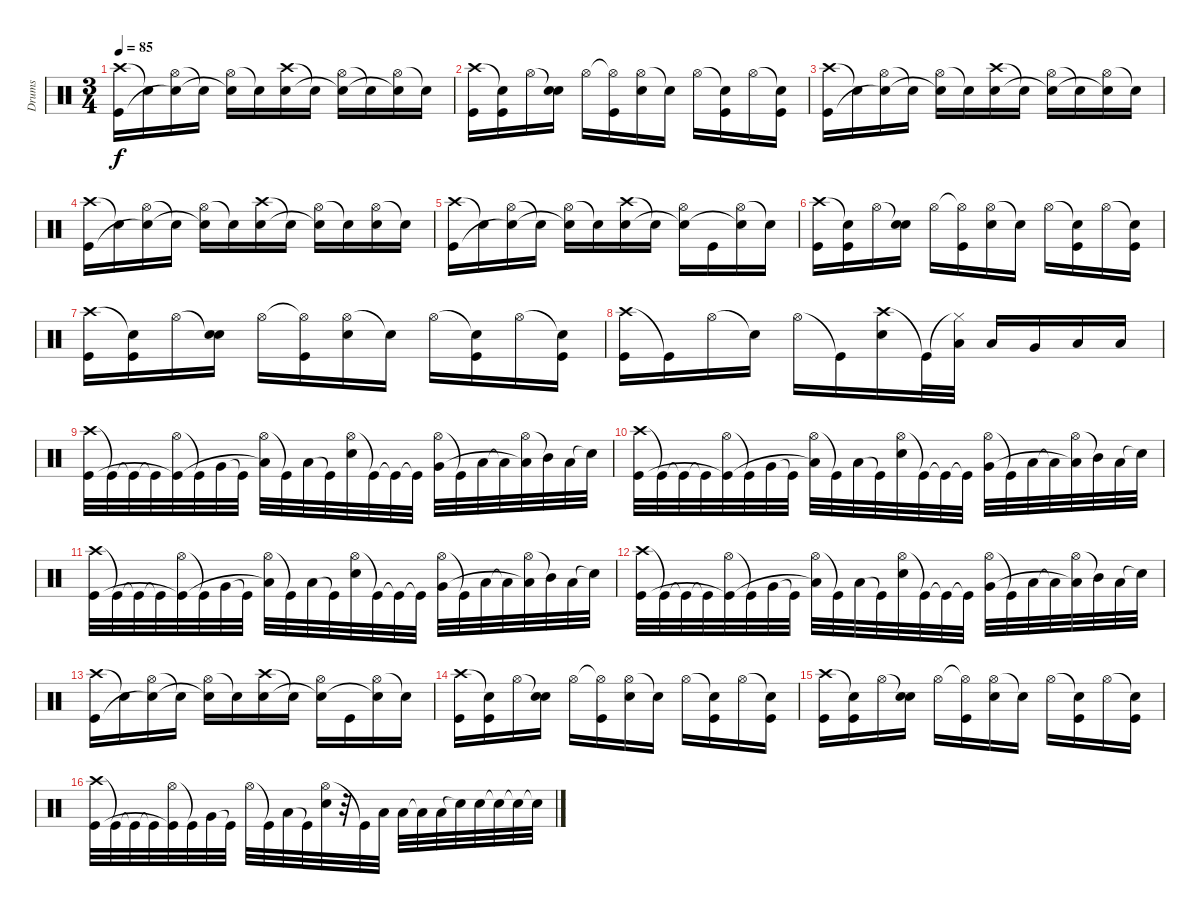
\track ("Drums" "Drums") {instrument percussion}
\staff {score}
\articulation defaults
\ts (3 4)
\tempo 85
\clef neutral
\ks c
("Crash high (hit)" "Kick (hit)").16{dy f} "Snare (hit)"{t}.16 ("Hi-Hat (open)" "Snare (hit)"{t}).16 "Snare (hit)"{t}.16 ("Hi-Hat (open)" "Snare (hit)"{t}).16 "Snare (hit)"{t}.16 ("Crash high (hit)" "Electric Snare (hit)").16 "Snare (hit)"{t}.16 ("Hi-Hat (open)" "Snare (hit)"{t}).16 "Snare (hit)"{t}.16 ("Hi-Hat (open)" "Snare (hit)"{t}).16 "Snare (hit)"{t}.16 |
("Crash high (hit)" "Kick (hit)").16 ("Snare (hit)"{t} "Kick (hit)").16 "Hi-Hat (open)".16 ("Snare (hit)"{t} "Electric Snare (hit)").16 "Hi-Hat (open)".16 ("Hi-Hat (open)"{t} "Kick (hit)").16 ("Hi-Hat (open)" "Electric Snare (hit)").16 "Snare (hit)"{t}.16 "Hi-Hat (open)".16 ("Snare (hit)"{t} "Kick (hit)").16 "Hi-Hat (open)".16 ("Snare (hit)"{t} "Kick (hit)").16 |
("Crash high (hit)" "Kick (hit)").16 "Snare (hit)"{t}.16 ("Hi-Hat (open)" "Snare (hit)"{t}).16 "Snare (hit)"{t}.16 ("Hi-Hat (open)" "Snare (hit)"{t}).16 "Snare (hit)"{t}.16 ("Crash high (hit)" "Electric Snare (hit)").16 "Snare (hit)"{t}.16 ("Hi-Hat (open)" "Snare (hit)"{t}).16 "Snare (hit)"{t}.16 ("Hi-Hat (open)" "Snare (hit)"{t}).16 "Snare (hit)"{t}.16 |
("Crash high (hit)" "Kick (hit)").16 "Snare (hit)"{t}.16 ("Hi-Hat (open)" "Snare (hit)"{t}).16 "Snare (hit)"{t}.16 ("Hi-Hat (open)" "Snare (hit)"{t}).16 "Snare (hit)"{t}.16 ("Crash high (hit)" "Electric Snare (hit)").16 "Snare (hit)"{t}.16 ("Hi-Hat (open)" "Snare (hit)"{t}).16 "Snare (hit)"{t}.16 ("Hi-Hat (open)" "Electric Snare (hit)").16 "Snare (hit)"{t}.16 |
("Crash high (hit)" "Kick (hit)").16 "Snare (hit)"{t}.16 ("Hi-Hat (open)" "Snare (hit)"{t}).16 "Snare (hit)"{t}.16 ("Hi-Hat (open)" "Snare (hit)"{t}).16 "Snare (hit)"{t}.16 ("Crash high (hit)" "Electric Snare (hit)").16 "Snare (hit)"{t}.16 ("Hi-Hat (open)" "Snare (hit)"{t}).16 "Kick (hit)".16 ("Hi-Hat (open)" "Snare (hit)"{t}).16 "Snare (hit)"{t}.16 |
("Crash high (hit)" "Kick (hit)").16 ("Snare (hit)"{t} "Kick (hit)").16 "Hi-Hat (open)".16 ("Snare (hit)"{t} "Electric Snare (hit)").16 "Hi-Hat (open)".16 ("Hi-Hat (open)"{t} "Kick (hit)").16 ("Hi-Hat (open)" "Electric Snare (hit)").16 "Snare (hit)"{t}.16 "Hi-Hat (open)".16 ("Snare (hit)"{t} "Kick (hit)").16 "Hi-Hat (open)".16 ("Snare (hit)"{t} "Kick (hit)").16 |
("Crash high (hit)" "Kick (hit)").16 ("Snare (hit)"{t} "Kick (hit)").16 "Hi-Hat (open)".16 ("Snare (hit)"{t} "Electric Snare (hit)").16 "Hi-Hat (open)".16 ("Hi-Hat (open)"{t} "Kick (hit)").16 ("Hi-Hat (open)" "Electric Snare (hit)").16 "Snare (hit)"{t}.16 "Hi-Hat (open)".16 ("Snare (hit)"{t} "Kick (hit)").16 "Hi-Hat (open)".16 ("Snare (hit)"{t} "Kick (hit)").16 |
("Crash high (hit)" "Kick (hit)").16 "Kick (hit)"{t}.16 "Hi-Hat (open)".16 "Electric Snare (hit)"{t}.16 "Hi-Hat (open)".16 "Kick (hit)"{t}.16 ("Crash high (hit)" "Electric Snare (hit)").16 "Kick (hit)"{t}.32 ("Hi-Hat (closed)"{t} "Low Tom (hit)").32 "Low Tom (hit)".16 "Very Low Tom (hit)".16 "Low Floor Tom (hit)".16 "Low Floor Tom (hit)".16 |
("Crash high (hit)" "Kick (hit)").32 "Kick (hit)"{t}.32 "Kick (hit)"{t}.32 "Kick (hit)"{t}.32 ("Hi-Hat (open)" "Kick (hit)"{t}).32 "Kick (hit)"{t}.32 "Very Low Tom (hit)".32 "Kick (hit)"{t}.32 ("Hi-Hat (open)" "Low Floor Tom (hit)"{t}).32 "Kick (hit)"{t}.32 "Low Floor Tom (hit)".32 "Kick (hit)"{t}.32 ("Hi-Hat (open)" "Electric Snare (hit)").32 "Kick (hit)"{t}.32 "Kick (hit)"{t}.32 "Kick (hit)"{t}.32 ("Hi-Hat (open)" "Very Low Tom (hit)").32 "Kick (hit)"{t}.32 "Low Floor Tom (hit)".32 "Low Floor Tom (hit)"{t}.32 ("Hi-Hat (open)" "Low Floor Tom (hit)"{t}).32 "Mid Tom (hit)"{t}.32 "Low Floor Tom (hit)".32 "Snare (hit)"{t}.32 |
("Crash high (hit)" "Kick (hit)").32 "Kick (hit)"{t}.32 "Kick (hit)"{t}.32 "Kick (hit)"{t}.32 ("Hi-Hat (open)" "Kick (hit)"{t}).32 "Kick (hit)"{t}.32 "Very Low Tom (hit)".32 "Kick (hit)"{t}.32 ("Hi-Hat (open)" "Low Floor Tom (hit)"{t}).32 "Kick (hit)"{t}.32 "Low Floor Tom (hit)".32 "Kick (hit)"{t}.32 ("Hi-Hat (open)" "Electric Snare (hit)").32 "Kick (hit)"{t}.32 "Kick (hit)"{t}.32 "Kick (hit)"{t}.32 ("Hi-Hat (open)" "Very Low Tom (hit)").32 "Kick (hit)"{t}.32 "Low Floor Tom (hit)".32 "Low Floor Tom (hit)"{t}.32 ("Hi-Hat (open)" "Low Floor Tom (hit)"{t}).32 "Mid Tom (hit)"{t}.32 "Low Floor Tom (hit)".32 "Snare (hit)"{t}.32 |
("Crash high (hit)" "Kick (hit)").32 "Kick (hit)"{t}.32 "Kick (hit)"{t}.32 "Kick (hit)"{t}.32 ("Hi-Hat (open)" "Kick (hit)"{t}).32 "Kick (hit)"{t}.32 "Very Low Tom (hit)".32 "Kick (hit)"{t}.32 ("Hi-Hat (open)" "Low Floor Tom (hit)"{t}).32 "Kick (hit)"{t}.32 "Low Floor Tom (hit)".32 "Kick (hit)"{t}.32 ("Hi-Hat (open)" "Electric Snare (hit)").32 "Kick (hit)"{t}.32 "Kick (hit)"{t}.32 "Kick (hit)"{t}.32 ("Hi-Hat (open)" "Very Low Tom (hit)").32 "Kick (hit)"{t}.32 "Low Floor Tom (hit)".32 "Low Floor Tom (hit)"{t}.32 ("Hi-Hat (open)" "Low Floor Tom (hit)"{t}).32 "Mid Tom (hit)"{t}.32 "Low Floor Tom (hit)".32 "Snare (hit)"{t}.32 |
("Crash high (hit)" "Kick (hit)").32 "Kick (hit)"{t}.32 "Kick (hit)"{t}.32 "Kick (hit)"{t}.32 ("Hi-Hat (open)" "Kick (hit)"{t}).32 "Kick (hit)"{t}.32 "Very Low Tom (hit)".32 "Kick (hit)"{t}.32 ("Hi-Hat (open)" "Low Floor Tom (hit)"{t}).32 "Kick (hit)"{t}.32 "Low Floor Tom (hit)".32 "Kick (hit)"{t}.32 ("Hi-Hat (open)" "Electric Snare (hit)").32 "Kick (hit)"{t}.32 "Kick (hit)"{t}.32 "Kick (hit)"{t}.32 ("Hi-Hat (open)" "Very Low Tom (hit)").32 "Kick (hit)"{t}.32 "Low Floor Tom (hit)".32 "Low Floor Tom (hit)"{t}.32 ("Hi-Hat (open)" "Low Floor Tom (hit)"{t}).32 "Mid Tom (hit)"{t}.32 "Low Floor Tom (hit)".32 "Snare (hit)"{t}.32 |
("Crash high (hit)" "Kick (hit)").16 "Snare (hit)"{t}.16 ("Hi-Hat (open)" "Snare (hit)"{t}).16 "Snare (hit)"{t}.16 ("Hi-Hat (open)" "Snare (hit)"{t}).16 "Snare (hit)"{t}.16 ("Crash high (hit)" "Electric Snare (hit)").16 "Snare (hit)"{t}.16 ("Hi-Hat (open)" "Snare (hit)"{t}).16 "Kick (hit)".16 ("Hi-Hat (open)" "Snare (hit)"{t}).16 "Snare (hit)"{t}.16 |
("Crash high (hit)" "Kick (hit)").16 ("Snare (hit)"{t} "Kick (hit)").16 "Hi-Hat (open)".16 ("Snare (hit)"{t} "Electric Snare (hit)").16 "Hi-Hat (open)".16 ("Hi-Hat (open)"{t} "Kick (hit)").16 ("Hi-Hat (open)" "Electric Snare (hit)").16 "Snare (hit)"{t}.16 "Hi-Hat (open)".16 ("Snare (hit)"{t} "Kick (hit)").16 "Hi-Hat (open)".16 ("Snare (hit)"{t} "Kick (hit)").16 |
("Crash high (hit)" "Kick (hit)").16 ("Snare (hit)"{t} "Kick (hit)").16 "Hi-Hat (open)".16 ("Snare (hit)"{t} "Electric Snare (hit)").16 "Hi-Hat (open)".16 ("Hi-Hat (open)"{t} "Kick (hit)").16 ("Hi-Hat (open)" "Electric Snare (hit)").16 "Snare (hit)"{t}.16 "Hi-Hat (open)".16 ("Snare (hit)"{t} "Kick (hit)").16 "Hi-Hat (open)".16 ("Snare (hit)"{t} "Kick (hit)").16 |
("Crash high (hit)" "Kick (hit)").32 "Kick (hit)"{t}.32 "Kick (hit)"{t}.32 "Kick (hit)"{t}.32 ("Hi-Hat (open)" "Kick (hit)"{t}).32 "Kick (hit)"{t}.32 "Very Low Tom (hit)".32 "Kick (hit)"{t}.32 "Hi-Hat (open)".32 "Kick (hit)"{t}.32 "Low Floor Tom (hit)".32 "Kick (hit)"{t}.32 ("Hi-Hat (open)" "Electric Snare (hit)").32 r.32 "Kick (hit)"{t}.32 "Low Floor Tom (hit)".32 "Low Floor Tom (hit)".32 "Low Floor Tom (hit)"{t}.32 "Low Floor Tom (hit)".32 "Electric Snare (hit)"{t}.32 "Electric Snare (hit)".32 "Electric Snare (hit)"{t}.32 "Snare (hit)"{t}.32 "Snare (hit)"{t}.32
